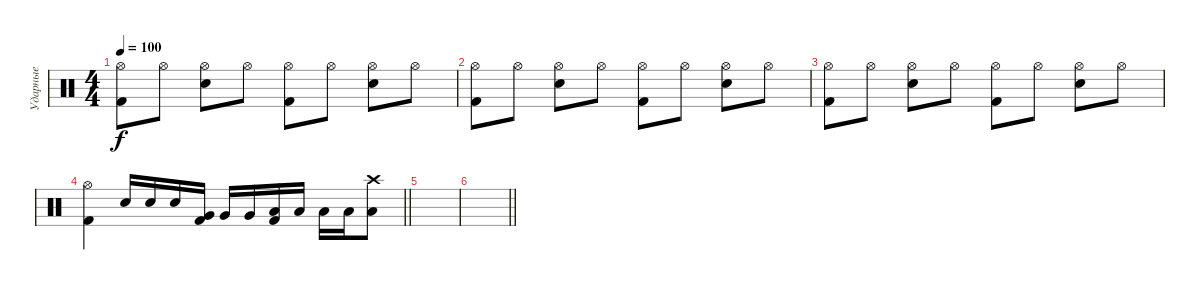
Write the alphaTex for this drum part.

\track ("Ударные" "Ударные") {instrument percussion}
\staff {score}
\articulation defaults
\ts (4 4)
\tempo 100
\clef neutral
\ks c
("Hi-Hat (open)" "Kick (hit) 2").8{dy f} "Hi-Hat (open)".8 ("Hi-Hat (open)" "Electric Snare (hit)").8 "Hi-Hat (open)".8 ("Hi-Hat (open)" "Kick (hit) 2").8 "Hi-Hat (open)".8 ("Hi-Hat (open)" "Electric Snare (hit)").8 "Hi-Hat (open)".8 |
("Hi-Hat (open)" "Kick (hit) 2").8 "Hi-Hat (open)".8 ("Hi-Hat (open)" "Electric Snare (hit)").8 "Hi-Hat (open)".8 ("Hi-Hat (open)" "Kick (hit) 2").8 "Hi-Hat (open)".8 ("Hi-Hat (open)" "Electric Snare (hit)").8 "Hi-Hat (open)".8 |
("Hi-Hat (open)" "Kick (hit) 2").8 "Hi-Hat (open)".8 ("Hi-Hat (open)" "Electric Snare (hit)").8 "Hi-Hat (open)".8 ("Hi-Hat (open)" "Kick (hit) 2").8 "Hi-Hat (open)".8 ("Hi-Hat (open)" "Electric Snare (hit)").8 "Hi-Hat (open)".8 |
\barLineRight lightlight
("Hi-Hat (open)" "Kick (hit) 2").4 "Electric Snare (hit)".16 "Electric Snare (hit)".16 "Electric Snare (hit)".16 ("Very Low Tom (hit)" "Kick (hit) 2").16 "Very Low Tom (hit)".16 "Very Low Tom (hit)".16 ("Low Tom (hit)" "Kick (hit) 2").16 "Low Tom (hit)".16 "Low Tom (hit)".16 "Low Tom (hit)".16 ("Crash high (hit)" "Low Tom (hit)").8 |
|
\barLineRight lightlight
